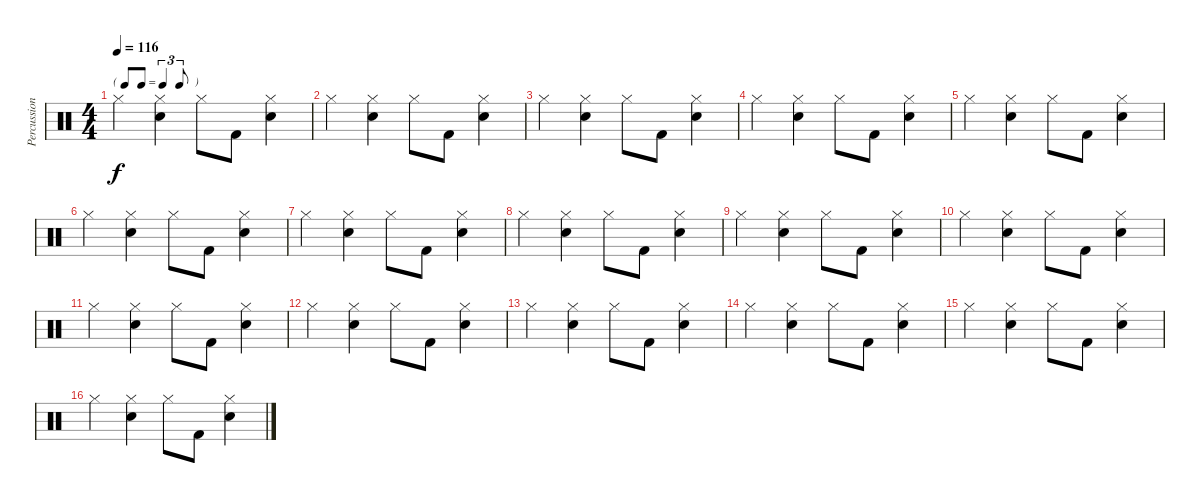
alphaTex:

\track ("Percussion" "Percussion") {instrument percussion}
\staff {score}
\articulation defaults
\ts (4 4)
\tf triplet8th
\tempo 116
\clef neutral
\ks c "Hi-Hat (closed)".4{dy f}
("Hi-Hat (closed)" "Snare (hit) 2").4 "Hi-Hat (closed)".8 "Kick (hit) 2".8 ("Hi-Hat (closed)" "Snare (hit) 2").4 |
"Hi-Hat (closed)".4 ("Hi-Hat (closed)" "Snare (hit) 2").4 "Hi-Hat (closed)".8 "Kick (hit) 2".8 ("Hi-Hat (closed)" "Snare (hit) 2").4 |
"Hi-Hat (closed)".4 ("Hi-Hat (closed)" "Snare (hit) 2").4 "Hi-Hat (closed)".8 "Kick (hit) 2".8 ("Hi-Hat (closed)" "Snare (hit) 2").4 |
"Hi-Hat (closed)".4 ("Hi-Hat (closed)" "Snare (hit) 2").4 "Hi-Hat (closed)".8 "Kick (hit) 2".8 ("Hi-Hat (closed)" "Snare (hit) 2").4 |
"Hi-Hat (closed)".4 ("Hi-Hat (closed)" "Snare (hit) 2").4 "Hi-Hat (closed)".8 "Kick (hit) 2".8 ("Hi-Hat (closed)" "Snare (hit) 2").4 |
"Hi-Hat (closed)".4 ("Hi-Hat (closed)" "Snare (hit) 2").4 "Hi-Hat (closed)".8 "Kick (hit) 2".8 ("Hi-Hat (closed)" "Snare (hit) 2").4 |
"Hi-Hat (closed)".4 ("Hi-Hat (closed)" "Snare (hit) 2").4 "Hi-Hat (closed)".8 "Kick (hit) 2".8 ("Hi-Hat (closed)" "Snare (hit) 2").4 |
"Hi-Hat (closed)".4 ("Hi-Hat (closed)" "Snare (hit) 2").4 "Hi-Hat (closed)".8 "Kick (hit) 2".8 ("Hi-Hat (closed)" "Snare (hit) 2").4 |
"Hi-Hat (closed)".4 ("Hi-Hat (closed)" "Snare (hit) 2").4 "Hi-Hat (closed)".8 "Kick (hit) 2".8 ("Hi-Hat (closed)" "Snare (hit) 2").4 |
"Hi-Hat (closed)".4 ("Hi-Hat (closed)" "Snare (hit) 2").4 "Hi-Hat (closed)".8 "Kick (hit) 2".8 ("Hi-Hat (closed)" "Snare (hit) 2").4 |
"Hi-Hat (closed)".4 ("Hi-Hat (closed)" "Snare (hit) 2").4 "Hi-Hat (closed)".8 "Kick (hit) 2".8 ("Hi-Hat (closed)" "Snare (hit) 2").4 |
"Hi-Hat (closed)".4 ("Hi-Hat (closed)" "Snare (hit) 2").4 "Hi-Hat (closed)".8 "Kick (hit) 2".8 ("Hi-Hat (closed)" "Snare (hit) 2").4 |
"Hi-Hat (closed)".4 ("Hi-Hat (closed)" "Snare (hit) 2").4 "Hi-Hat (closed)".8 "Kick (hit) 2".8 ("Hi-Hat (closed)" "Snare (hit) 2").4 |
"Hi-Hat (closed)".4 ("Hi-Hat (closed)" "Snare (hit) 2").4 "Hi-Hat (closed)".8 "Kick (hit) 2".8 ("Hi-Hat (closed)" "Snare (hit) 2").4 |
"Hi-Hat (closed)".4 ("Hi-Hat (closed)" "Snare (hit) 2").4 "Hi-Hat (closed)".8 "Kick (hit) 2".8 ("Hi-Hat (closed)" "Snare (hit) 2").4 |
"Hi-Hat (closed)".4 ("Hi-Hat (closed)" "Snare (hit) 2").4 "Hi-Hat (closed)".8 "Kick (hit) 2".8 ("Hi-Hat (closed)" "Snare (hit) 2").4
